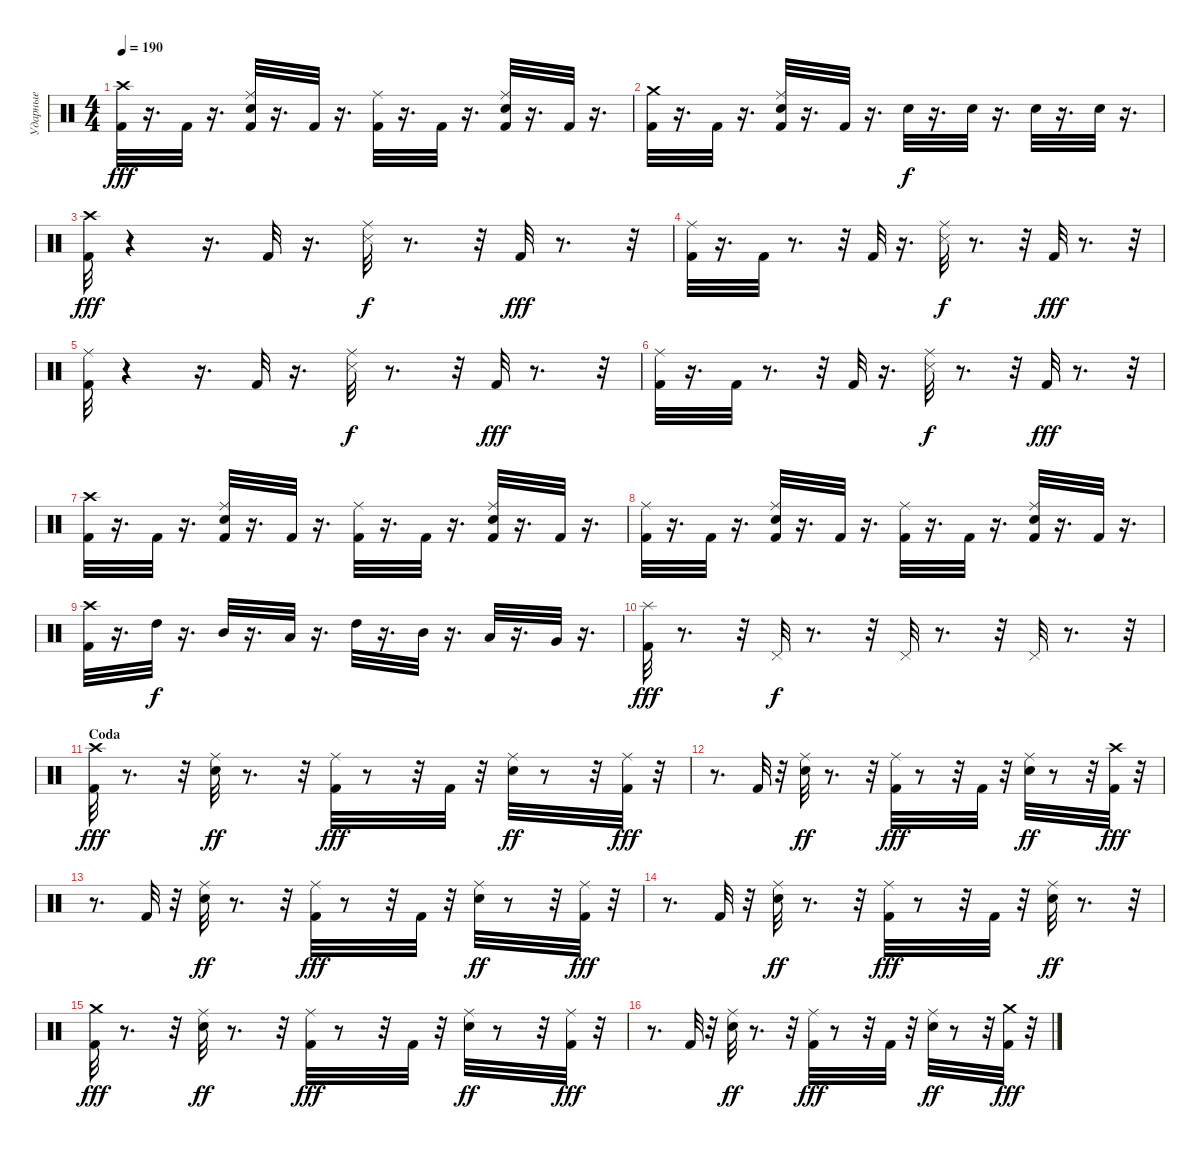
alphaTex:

\track ("Ударные" "Ударные") {instrument percussion}
\staff {score}
\articulation defaults
\ts (4 4)
\tempo 190
\clef neutral
\ks c
("Crash high (hit)" "Kick (hit) 2").32{dy fff} r.16{d} "Kick (hit) 2".32 r.16{d} ("Ride (middle)" "Snare (hit) 2" "Kick (hit) 2").32 r.16{d} "Kick (hit) 2".32 r.16{d} ("Ride (middle)" "Kick (hit) 2").32 r.16{d} "Kick (hit) 2".32 r.16{d} ("Kick (hit) 2" "Ride (middle)" "Snare (hit) 2").32 r.16{d} "Kick (hit) 2".32 r.16{d} |
("Crash medium (hit)" "Kick (hit) 2").32 r.16{d} "Kick (hit) 2".32 r.16{d} ("Ride (middle)" "Kick (hit) 2" "Snare (hit) 2").32 r.16{d} "Kick (hit) 2".32 r.16{d} "Snare (hit) 2".32{dy f} r.16{d} "Snare (hit) 2".32 r.16{d} "Snare (hit) 2".32 r.16{d} "Snare (hit) 2".32 r.16{d} |
("Crash high (hit)" "Kick (hit) 2").32{dy fff} r.4 r.16{d} "Kick (hit) 2".32 r.16{d} ("Ride (middle)" "Snare (side stick) 3").32{dy f} r.8{d} r.32 "Kick (hit) 2".32{dy fff} r.8{d} r.32 |
("Ride (middle)" "Kick (hit) 2").32 r.16{d} "Kick (hit) 2".32 r.8{d} r.32 "Kick (hit) 2".32 r.16{d} ("Ride (middle)" "Snare (side stick) 3").32{dy f} r.8{d} r.32 "Kick (hit) 2".32{dy fff} r.8{d} r.32 |
("Ride (middle)" "Kick (hit) 2").32 r.4 r.16{d} "Kick (hit) 2".32 r.16{d} ("Ride (middle)" "Snare (side stick) 3").32{dy f} r.8{d} r.32 "Kick (hit) 2".32{dy fff} r.8{d} r.32 |
("Ride (middle)" "Kick (hit) 2").32 r.16{d} "Kick (hit) 2".32 r.8{d} r.32 "Kick (hit) 2".32 r.16{d} ("Ride (middle)" "Snare (side stick) 3").32{dy f} r.8{d} r.32 "Kick (hit) 2".32{dy fff} r.8{d} r.32 |
("Crash high (hit)" "Kick (hit) 2").32 r.16{d} "Kick (hit) 2".32 r.16{d} ("Kick (hit) 2" "Ride (middle)" "Snare (hit) 2").32 r.16{d} "Kick (hit) 2".32 r.16{d} ("Ride (middle)" "Kick (hit) 2").32 r.16{d} "Kick (hit) 2".32 r.16{d} ("Kick (hit) 2" "Ride (middle)" "Snare (hit) 2").32 r.16{d} "Kick (hit) 2".32 r.16{d} |
("Ride (middle)" "Kick (hit) 2").32 r.16{d} "Kick (hit) 2".32 r.16{d} ("Ride (middle)" "Kick (hit) 2" "Snare (hit) 2").32 r.16{d} "Kick (hit) 2".32 r.16{d} ("Ride (middle)" "Kick (hit) 2").32 r.16{d} "Kick (hit) 2".32 r.16{d} ("Ride (middle)" "Kick (hit) 2" "Snare (hit) 2").32 r.16{d} "Kick (hit) 2".32 r.16{d} |
("Kick (hit) 2" "Crash high (hit)").32 r.16{d} "High Tom (hit)".32{dy f} r.16{d} "Mid Tom (hit)".32 r.16{d} "Low Tom (hit)".32 r.16{d} "High Tom (hit)".32 r.16{d} "Mid Tom (hit)".32 r.16{d} "Low Tom (hit)".32 r.16{d} "Very Low Tom (hit)".32 r.16{d} |
("Splash (hit)" "Kick (hit) 2").32{dy fff} r.8{d} r.32 "Pedal Hi-Hat (hit)".32{dy f} r.8{d} r.32 "Pedal Hi-Hat (hit)".32 r.8{d} r.32 "Pedal Hi-Hat (hit)".32 r.8{d} r.32 |
\section ("" "Coda")
("Crash high (hit)" "Kick (hit) 2").32{dy fff} r.8{d} r.32 ("Ride (middle)" "Snare (hit) 2").32{dy ff} r.8{d} r.32 ("Ride (middle)" "Kick (hit) 2").32{dy fff} r.8 r.32 "Kick (hit) 2".32 r.32 ("Ride (middle)" "Snare (hit) 2").32{dy ff} r.8 r.32 ("Ride (middle)" "Kick (hit) 2").32{dy fff} r.32 |
r.8{d} "Kick (hit) 2".32 r.32 ("Ride (middle)" "Snare (hit) 2").32{dy ff} r.8{d} r.32 ("Kick (hit) 2" "Ride (middle)").32{dy fff} r.8 r.32 "Kick (hit) 2".32 r.32 ("Snare (hit) 2" "Ride (middle)").32{dy ff} r.8 r.32 ("Crash high (hit)" "Kick (hit) 2").32{dy fff} r.32 |
r.8{d} "Kick (hit) 2".32 r.32 ("Ride (middle)" "Snare (hit) 2").32{dy ff} r.8{d} r.32 ("Kick (hit) 2" "Ride (middle)").32{dy fff} r.8 r.32 "Kick (hit) 2".32 r.32 ("Snare (hit) 2" "Ride (middle)").32{dy ff} r.8 r.32 ("Ride (middle)" "Kick (hit) 2").32{dy fff} r.32 |
r.8{d} "Kick (hit) 2".32 r.32 ("Ride (middle)" "Snare (hit) 2").32{dy ff} r.8{d} r.32 ("Ride (middle)" "Kick (hit) 2").32{dy fff} r.8 r.32 "Kick (hit) 2".32 r.32 ("Ride (middle)" "Snare (hit) 2").32{dy ff} r.8{d} r.32 |
("Crash medium (hit)" "Kick (hit) 2").32{dy fff} r.8{d} r.32 ("Ride (middle)" "Snare (hit) 2").32{dy ff} r.8{d} r.32 ("Ride (middle)" "Kick (hit) 2").32{dy fff} r.8 r.32 "Kick (hit) 2".32 r.32 ("Ride (middle)" "Snare (hit) 2").32{dy ff} r.8 r.32 ("Ride (middle)" "Kick (hit) 2").32{dy fff} r.32 |
r.8{d} "Kick (hit) 2".32 r.32 ("Ride (middle)" "Snare (hit) 2").32{dy ff} r.8{d} r.32 ("Kick (hit) 2" "Ride (middle)").32{dy fff} r.8 r.32 "Kick (hit) 2".32 r.32 ("Snare (hit) 2" "Ride (middle)").32{dy ff} r.8 r.32 ("Kick (hit) 2" "Crash medium (hit)").32{dy fff} r.32
